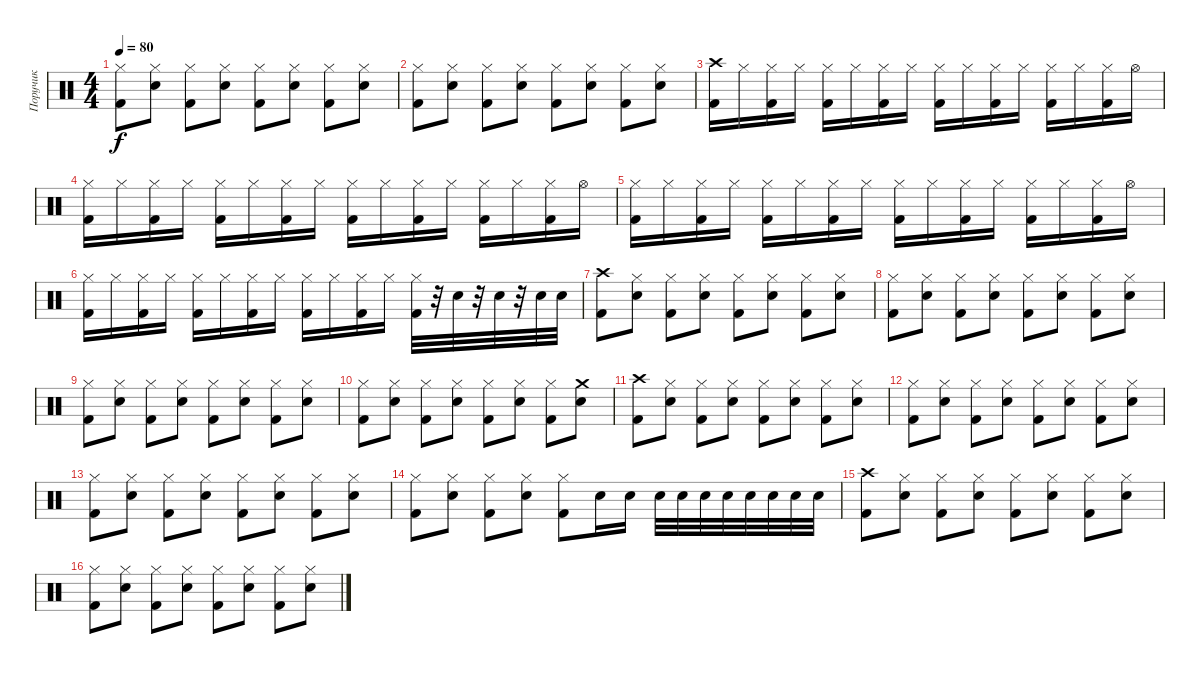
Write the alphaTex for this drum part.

\track ("Поручик" "Поручик") {instrument percussion}
\staff {score}
\articulation defaults
\ts (4 4)
\tempo 80
\clef neutral
\ks c
("Hi-Hat (closed)" "Kick (hit) 2").8{dy f} ("Hi-Hat (closed)" "Electric Snare (hit)").8 ("Hi-Hat (closed)" "Kick (hit) 2").8 ("Hi-Hat (closed)" "Electric Snare (hit)").8 ("Hi-Hat (closed)" "Kick (hit) 2").8 ("Hi-Hat (closed)" "Electric Snare (hit)").8 ("Hi-Hat (closed)" "Kick (hit) 2").8 ("Hi-Hat (closed)" "Electric Snare (hit)").8 |
("Hi-Hat (closed)" "Kick (hit) 2").8 ("Hi-Hat (closed)" "Electric Snare (hit)").8 ("Hi-Hat (closed)" "Kick (hit) 2").8 ("Hi-Hat (closed)" "Electric Snare (hit)").8 ("Hi-Hat (closed)" "Kick (hit) 2").8 ("Hi-Hat (closed)" "Electric Snare (hit)").8 ("Hi-Hat (closed)" "Kick (hit) 2").8 ("Hi-Hat (closed)" "Electric Snare (hit)").8 |
("Crash high (hit)" "Kick (hit) 2").16 "Hi-Hat (closed)".16 ("Hi-Hat (closed)" "Kick (hit) 2").16 "Hi-Hat (closed)".16 ("Hi-Hat (closed)" "Kick (hit) 2").16 "Hi-Hat (closed)".16 ("Hi-Hat (closed)" "Kick (hit) 2").16 "Hi-Hat (closed)".16 ("Hi-Hat (closed)" "Kick (hit) 2").16 "Hi-Hat (closed)".16 ("Hi-Hat (closed)" "Kick (hit) 2").16 "Hi-Hat (closed)".16 ("Hi-Hat (closed)" "Kick (hit) 2").16 "Hi-Hat (closed)".16 ("Hi-Hat (closed)" "Kick (hit) 2").16 "Hi-Hat (open)".16 |
("Hi-Hat (closed)" "Kick (hit) 2").16 "Hi-Hat (closed)".16 ("Hi-Hat (closed)" "Kick (hit) 2").16 "Hi-Hat (closed)".16 ("Hi-Hat (closed)" "Kick (hit) 2").16 "Hi-Hat (closed)".16 ("Hi-Hat (closed)" "Kick (hit) 2").16 "Hi-Hat (closed)".16 ("Hi-Hat (closed)" "Kick (hit) 2").16 "Hi-Hat (closed)".16 ("Hi-Hat (closed)" "Kick (hit) 2").16 "Hi-Hat (closed)".16 ("Hi-Hat (closed)" "Kick (hit) 2").16 "Hi-Hat (closed)".16 ("Hi-Hat (closed)" "Kick (hit) 2").16 "Hi-Hat (open)".16 |
("Hi-Hat (closed)" "Kick (hit) 2").16 "Hi-Hat (closed)".16 ("Hi-Hat (closed)" "Kick (hit) 2").16 "Hi-Hat (closed)".16 ("Hi-Hat (closed)" "Kick (hit) 2").16 "Hi-Hat (closed)".16 ("Hi-Hat (closed)" "Kick (hit) 2").16 "Hi-Hat (closed)".16 ("Hi-Hat (closed)" "Kick (hit) 2").16 "Hi-Hat (closed)".16 ("Hi-Hat (closed)" "Kick (hit) 2").16 "Hi-Hat (closed)".16 ("Hi-Hat (closed)" "Kick (hit) 2").16 "Hi-Hat (closed)".16 ("Hi-Hat (closed)" "Kick (hit) 2").16 "Hi-Hat (open)".16 |
("Hi-Hat (closed)" "Kick (hit) 2").16 "Hi-Hat (closed)".16 ("Hi-Hat (closed)" "Kick (hit) 2").16 "Hi-Hat (closed)".16 ("Hi-Hat (closed)" "Kick (hit) 2").16 "Hi-Hat (closed)".16 ("Hi-Hat (closed)" "Kick (hit) 2").16 "Hi-Hat (closed)".16 ("Hi-Hat (closed)" "Kick (hit) 2").16 "Hi-Hat (closed)".16 ("Hi-Hat (closed)" "Kick (hit) 2").16 "Hi-Hat (closed)".16 ("Hi-Hat (closed)" "Kick (hit) 2").32 r.32 "Electric Snare (hit)".32 r.32 "Electric Snare (hit)".32 r.32 "Electric Snare (hit)".32 "Electric Snare (hit)".32 |
("Crash high (hit)" "Kick (hit) 2").8 ("Hi-Hat (closed)" "Electric Snare (hit)").8 ("Hi-Hat (closed)" "Kick (hit) 2").8 ("Hi-Hat (closed)" "Electric Snare (hit)").8 ("Hi-Hat (closed)" "Kick (hit) 2").8 ("Hi-Hat (closed)" "Electric Snare (hit)").8 ("Hi-Hat (closed)" "Kick (hit) 2").8 ("Hi-Hat (closed)" "Electric Snare (hit)").8 |
("Hi-Hat (closed)" "Kick (hit) 2").8 ("Hi-Hat (closed)" "Electric Snare (hit)").8 ("Hi-Hat (closed)" "Kick (hit) 2").8 ("Hi-Hat (closed)" "Electric Snare (hit)").8 ("Hi-Hat (closed)" "Kick (hit) 2").8 ("Hi-Hat (closed)" "Electric Snare (hit)").8 ("Hi-Hat (closed)" "Kick (hit) 2").8 ("Hi-Hat (closed)" "Electric Snare (hit)").8 |
("Hi-Hat (closed)" "Kick (hit) 2").8 ("Hi-Hat (closed)" "Electric Snare (hit)").8 ("Hi-Hat (closed)" "Kick (hit) 2").8 ("Hi-Hat (closed)" "Electric Snare (hit)").8 ("Hi-Hat (closed)" "Kick (hit) 2").8 ("Hi-Hat (closed)" "Electric Snare (hit)").8 ("Hi-Hat (closed)" "Kick (hit) 2").8 ("Hi-Hat (closed)" "Electric Snare (hit)").8 |
("Hi-Hat (closed)" "Kick (hit) 2").8 ("Hi-Hat (closed)" "Electric Snare (hit)").8 ("Hi-Hat (closed)" "Kick (hit) 2").8 ("Hi-Hat (closed)" "Electric Snare (hit)").8 ("Hi-Hat (closed)" "Kick (hit) 2").8 ("Hi-Hat (closed)" "Electric Snare (hit)").8 ("Hi-Hat (closed)" "Kick (hit) 2").8 ("Crash medium (hit)" "Electric Snare (hit)").8 |
("Crash high (hit)" "Kick (hit) 2").8 ("Hi-Hat (closed)" "Electric Snare (hit)").8 ("Hi-Hat (closed)" "Kick (hit) 2").8 ("Hi-Hat (closed)" "Electric Snare (hit)").8 ("Hi-Hat (closed)" "Kick (hit) 2").8 ("Hi-Hat (closed)" "Electric Snare (hit)").8 ("Hi-Hat (closed)" "Kick (hit) 2").8 ("Hi-Hat (closed)" "Electric Snare (hit)").8 |
("Hi-Hat (closed)" "Kick (hit) 2").8 ("Hi-Hat (closed)" "Electric Snare (hit)").8 ("Hi-Hat (closed)" "Kick (hit) 2").8 ("Hi-Hat (closed)" "Electric Snare (hit)").8 ("Hi-Hat (closed)" "Kick (hit) 2").8 ("Hi-Hat (closed)" "Electric Snare (hit)").8 ("Hi-Hat (closed)" "Kick (hit) 2").8 ("Hi-Hat (closed)" "Electric Snare (hit)").8 |
("Hi-Hat (closed)" "Kick (hit) 2").8 ("Hi-Hat (closed)" "Electric Snare (hit)").8 ("Hi-Hat (closed)" "Kick (hit) 2").8 ("Hi-Hat (closed)" "Electric Snare (hit)").8 ("Hi-Hat (closed)" "Kick (hit) 2").8 ("Hi-Hat (closed)" "Electric Snare (hit)").8 ("Hi-Hat (closed)" "Kick (hit) 2").8 ("Hi-Hat (closed)" "Electric Snare (hit)").8 |
("Hi-Hat (closed)" "Kick (hit) 2").8 ("Hi-Hat (closed)" "Electric Snare (hit)").8 ("Hi-Hat (closed)" "Kick (hit) 2").8 ("Hi-Hat (closed)" "Electric Snare (hit)").8 ("Hi-Hat (closed)" "Kick (hit) 2").8 "Electric Snare (hit)".16 "Electric Snare (hit)".16 "Electric Snare (hit)".32 "Electric Snare (hit)".32 "Electric Snare (hit)".32 "Electric Snare (hit)".32 "Electric Snare (hit)".32 "Electric Snare (hit)".32 "Electric Snare (hit)".32 "Electric Snare (hit)".32 |
("Crash high (hit)" "Kick (hit) 2").8 ("Hi-Hat (closed)" "Electric Snare (hit)").8 ("Hi-Hat (closed)" "Kick (hit) 2").8 ("Hi-Hat (closed)" "Electric Snare (hit)").8 ("Hi-Hat (closed)" "Kick (hit) 2").8 ("Hi-Hat (closed)" "Electric Snare (hit)").8 ("Hi-Hat (closed)" "Kick (hit) 2").8 ("Hi-Hat (closed)" "Electric Snare (hit)").8 |
("Hi-Hat (closed)" "Kick (hit) 2").8 ("Hi-Hat (closed)" "Electric Snare (hit)").8 ("Hi-Hat (closed)" "Kick (hit) 2").8 ("Hi-Hat (closed)" "Electric Snare (hit)").8 ("Hi-Hat (closed)" "Kick (hit) 2").8 ("Hi-Hat (closed)" "Electric Snare (hit)").8 ("Hi-Hat (closed)" "Kick (hit) 2").8 ("Hi-Hat (closed)" "Electric Snare (hit)").8
